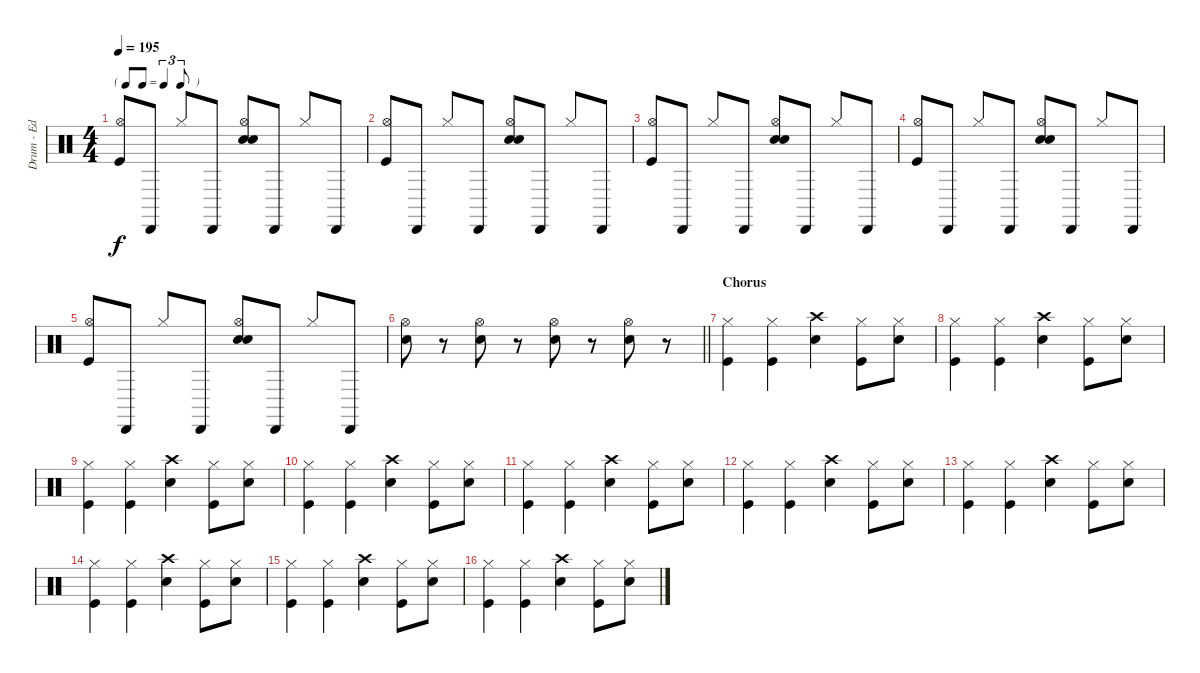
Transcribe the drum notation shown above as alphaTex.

\track ("Drum - Ed" "Drum - Ed") {instrument percussion}
\staff {score}
\articulation defaults
\ts (4 4)
\tf triplet8th
\tempo 195
\clef neutral
\ks c
("Hi-Hat (open)" "Kick (hit)").8{dy f} "Cabasa (hit)".8 "Hi-Hat (closed)".8 "Cabasa (hit)".8 ("Hi-Hat (open)" "Hand Clap (hit)" "Electric Snare (hit)").8 "Cabasa (hit)".8 "Hi-Hat (closed)".8 "Cabasa (hit)".8 |
("Hi-Hat (open)" "Kick (hit)").8 "Cabasa (hit)".8 "Hi-Hat (closed)".8 "Cabasa (hit)".8 ("Hi-Hat (open)" "Hand Clap (hit)" "Electric Snare (hit)").8 "Cabasa (hit)".8 "Hi-Hat (closed)".8 "Cabasa (hit)".8 |
("Hi-Hat (open)" "Kick (hit)").8 "Cabasa (hit)".8 "Hi-Hat (closed)".8 "Cabasa (hit)".8 ("Hi-Hat (open)" "Hand Clap (hit)" "Electric Snare (hit)").8 "Cabasa (hit)".8 "Hi-Hat (closed)".8 "Cabasa (hit)".8 |
("Hi-Hat (open)" "Kick (hit)").8 "Cabasa (hit)".8 "Hi-Hat (closed)".8 "Cabasa (hit)".8 ("Hi-Hat (open)" "Hand Clap (hit)" "Electric Snare (hit)").8 "Cabasa (hit)".8 "Hi-Hat (closed)".8 "Cabasa (hit)".8 |
("Hi-Hat (open)" "Kick (hit)").8 "Cabasa (hit)".8 "Hi-Hat (closed)".8 "Cabasa (hit)".8 ("Hi-Hat (open)" "Hand Clap (hit)" "Electric Snare (hit)").8 "Cabasa (hit)".8 "Hi-Hat (closed)".8 "Cabasa (hit)".8 |
\barLineRight lightlight
("Hi-Hat (open)" "Electric Snare (hit)").8 r.8 ("Hi-Hat (open)" "Electric Snare (hit)").8 r.8 ("Hi-Hat (open)" "Electric Snare (hit)").8 r.8 ("Hi-Hat (open)" "Electric Snare (hit)").8 r.8 |
\section ("" "Chorus")
("Hi-Hat (closed)" "Kick (hit)").4 ("Hi-Hat (closed)" "Kick (hit)").4 ("Crash high (hit)" "Electric Snare (hit)").4 ("Hi-Hat (closed)" "Kick (hit)").8 ("Hi-Hat (closed)" "Electric Snare (hit)").8 |
("Hi-Hat (closed)" "Kick (hit)").4 ("Hi-Hat (closed)" "Kick (hit)").4 ("Crash high (hit)" "Electric Snare (hit)").4 ("Hi-Hat (closed)" "Kick (hit)").8 ("Hi-Hat (closed)" "Electric Snare (hit)").8 |
("Hi-Hat (closed)" "Kick (hit)").4 ("Hi-Hat (closed)" "Kick (hit)").4 ("Crash high (hit)" "Electric Snare (hit)").4 ("Hi-Hat (closed)" "Kick (hit)").8 ("Hi-Hat (closed)" "Electric Snare (hit)").8 |
("Hi-Hat (closed)" "Kick (hit)").4 ("Hi-Hat (closed)" "Kick (hit)").4 ("Crash high (hit)" "Electric Snare (hit)").4 ("Hi-Hat (closed)" "Kick (hit)").8 ("Hi-Hat (closed)" "Electric Snare (hit)").8 |
("Hi-Hat (closed)" "Kick (hit)").4 ("Hi-Hat (closed)" "Kick (hit)").4 ("Crash high (hit)" "Electric Snare (hit)").4 ("Hi-Hat (closed)" "Kick (hit)").8 ("Hi-Hat (closed)" "Electric Snare (hit)").8 |
("Hi-Hat (closed)" "Kick (hit)").4 ("Hi-Hat (closed)" "Kick (hit)").4 ("Crash high (hit)" "Electric Snare (hit)").4 ("Hi-Hat (closed)" "Kick (hit)").8 ("Hi-Hat (closed)" "Electric Snare (hit)").8 |
("Hi-Hat (closed)" "Kick (hit)").4 ("Hi-Hat (closed)" "Kick (hit)").4 ("Crash high (hit)" "Electric Snare (hit)").4 ("Hi-Hat (closed)" "Kick (hit)").8 ("Hi-Hat (closed)" "Electric Snare (hit)").8 |
("Hi-Hat (closed)" "Kick (hit)").4 ("Hi-Hat (closed)" "Kick (hit)").4 ("Crash high (hit)" "Electric Snare (hit)").4 ("Hi-Hat (closed)" "Kick (hit)").8 ("Hi-Hat (closed)" "Electric Snare (hit)").8 |
("Hi-Hat (closed)" "Kick (hit)").4 ("Hi-Hat (closed)" "Kick (hit)").4 ("Crash high (hit)" "Electric Snare (hit)").4 ("Hi-Hat (closed)" "Kick (hit)").8 ("Hi-Hat (closed)" "Electric Snare (hit)").8 |
("Hi-Hat (closed)" "Kick (hit)").4 ("Hi-Hat (closed)" "Kick (hit)").4 ("Crash high (hit)" "Electric Snare (hit)").4 ("Hi-Hat (closed)" "Kick (hit)").8 ("Hi-Hat (closed)" "Electric Snare (hit)").8
